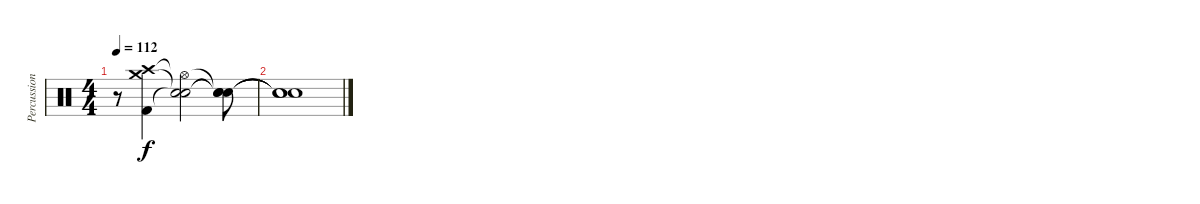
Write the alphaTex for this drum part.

\track ("Percussion" "Percussion") {instrument percussion}
\staff {score}
\articulation defaults
\ts (4 4)
\tempo 112
\clef neutral
\ks c
r.8{dy f} ("Kick (hit) 2" "Crash high (hit)" "Crash medium (hit)").4 ("Electric Snare (hit)"{t} "Hi-Hat (open)"{t} "Snare (hit)"{t}).2 ("Snare (hit)"{t} "Snare (hit)"{t} "Snare (hit)"{t}).8 |
("Snare (hit)"{t} "Snare (hit)"{t} "Snare (hit)"{t}).1
